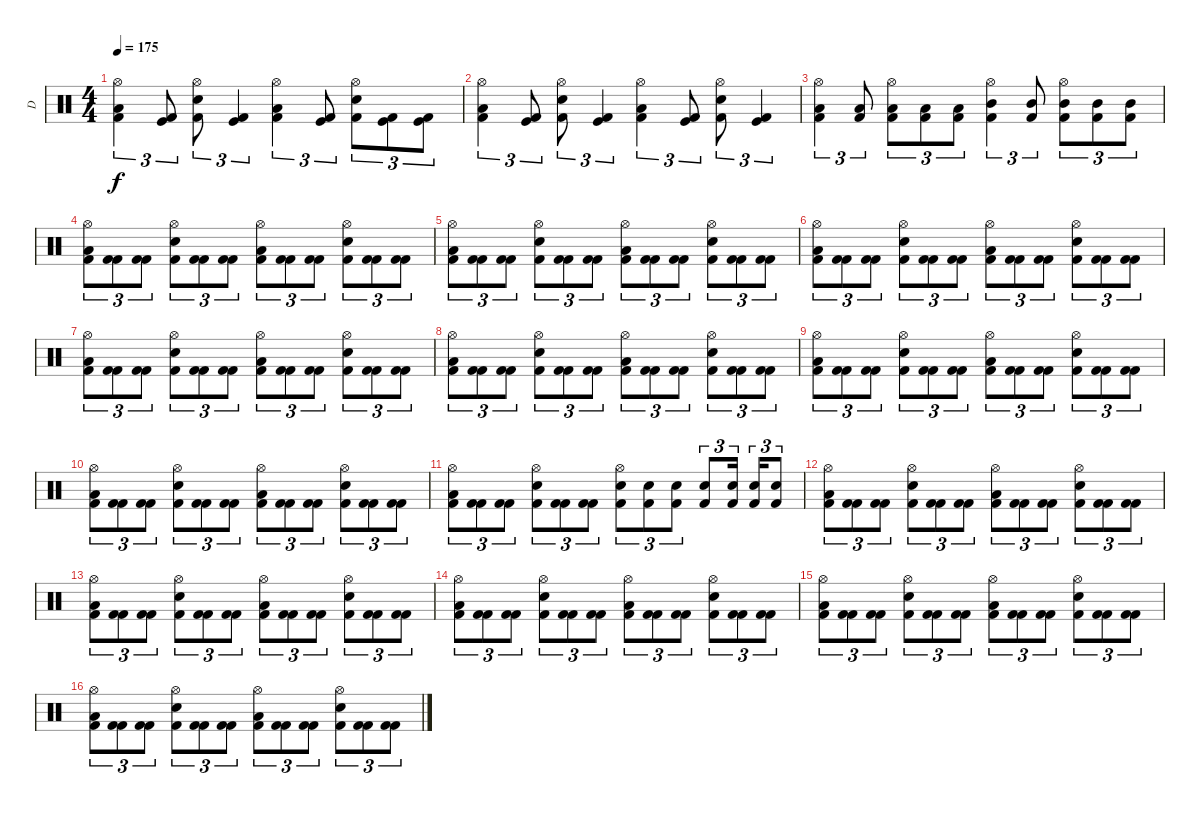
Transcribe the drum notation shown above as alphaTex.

\track ("D" "D") {instrument percussion}
\staff {score}
\articulation defaults
\ts (4 4)
\tempo 175
\clef neutral
\ks c
("Hi-Hat (open)" "Low Floor Tom (hit)" "Kick (hit) 2").4{tu (3 2) dy f} ("Kick (hit)" "Kick (hit) 2").8{tu (3 2)} ("Hi-Hat (open)" "Electric Snare (hit)" "Kick (hit) 2").8{tu (3 2)} ("Kick (hit)" "Kick (hit) 2").4{tu (3 2)} ("Hi-Hat (open)" "Low Floor Tom (hit)" "Kick (hit) 2").4{tu (3 2)} ("Kick (hit)" "Kick (hit) 2").8{tu (3 2)} ("Hi-Hat (open)" "Snare (hit) 2" "Kick (hit) 2").8{tu (3 2)} ("Kick (hit)" "Kick (hit) 2").8{tu (3 2)} ("Kick (hit)" "Kick (hit) 2").8{tu (3 2)} |
("Hi-Hat (open)" "Low Floor Tom (hit)" "Kick (hit) 2").4{tu (3 2)} ("Kick (hit)" "Kick (hit) 2").8{tu (3 2)} ("Hi-Hat (open)" "Electric Snare (hit)" "Kick (hit) 2").8{tu (3 2)} ("Kick (hit)" "Kick (hit) 2").4{tu (3 2)} ("Hi-Hat (open)" "Low Floor Tom (hit)" "Kick (hit) 2").4{tu (3 2)} ("Kick (hit)" "Kick (hit) 2").8{tu (3 2)} ("Hi-Hat (open)" "Electric Snare (hit)" "Kick (hit) 2").8{tu (3 2)} ("Kick (hit)" "Kick (hit) 2").4{tu (3 2)} |
("Hi-Hat (open)" "Low Tom (hit)" "Kick (hit) 2").4{tu (3 2)} ("Low Tom (hit)" "Kick (hit) 2").8{tu (3 2)} ("Hi-Hat (open)" "Low Tom (hit)" "Kick (hit) 2").8{tu (3 2)} ("Low Tom (hit)" "Kick (hit) 2").8{tu (3 2)} ("Low Tom (hit)" "Kick (hit) 2").8{tu (3 2)} ("Hi-Hat (open)" "Mid Tom (hit)" "Kick (hit) 2").4{tu (3 2)} ("Mid Tom (hit)" "Kick (hit) 2").8{tu (3 2)} ("Hi-Hat (open)" "Mid Tom (hit)" "Kick (hit) 2").8{tu (3 2)} ("Mid Tom (hit)" "Kick (hit) 2").8{tu (3 2)} ("Mid Tom (hit)" "Kick (hit) 2").8{tu (3 2)} |
("Hi-Hat (open)" "Low Floor Tom (hit)" "Kick (hit) 2").8{tu (3 2)} ("Kick (hit) 2" "Kick (hit) 2").8{tu (3 2)} ("Kick (hit) 2" "Kick (hit) 2").8{tu (3 2)} ("Hi-Hat (open)" "Electric Snare (hit)" "Kick (hit) 2").8{tu (3 2)} ("Kick (hit) 2" "Kick (hit) 2").8{tu (3 2)} ("Kick (hit) 2" "Kick (hit) 2").8{tu (3 2)} ("Hi-Hat (open)" "Low Floor Tom (hit)" "Kick (hit) 2").8{tu (3 2)} ("Kick (hit) 2" "Kick (hit) 2").8{tu (3 2)} ("Kick (hit) 2" "Kick (hit) 2").8{tu (3 2)} ("Hi-Hat (open)" "Snare (hit) 2" "Kick (hit) 2").8{tu (3 2)} ("Kick (hit) 2" "Kick (hit) 2").8{tu (3 2)} ("Kick (hit) 2" "Kick (hit) 2").8{tu (3 2)} |
("Hi-Hat (open)" "Low Floor Tom (hit)" "Kick (hit) 2").8{tu (3 2)} ("Kick (hit) 2" "Kick (hit) 2").8{tu (3 2)} ("Kick (hit) 2" "Kick (hit) 2").8{tu (3 2)} ("Hi-Hat (open)" "Electric Snare (hit)" "Kick (hit) 2").8{tu (3 2)} ("Kick (hit) 2" "Kick (hit) 2").8{tu (3 2)} ("Kick (hit) 2" "Kick (hit) 2").8{tu (3 2)} ("Hi-Hat (open)" "Low Floor Tom (hit)" "Kick (hit) 2").8{tu (3 2)} ("Kick (hit) 2" "Kick (hit) 2").8{tu (3 2)} ("Kick (hit) 2" "Kick (hit) 2").8{tu (3 2)} ("Hi-Hat (open)" "Snare (hit) 2" "Kick (hit) 2").8{tu (3 2)} ("Kick (hit) 2" "Kick (hit) 2").8{tu (3 2)} ("Kick (hit) 2" "Kick (hit) 2").8{tu (3 2)} |
("Hi-Hat (open)" "Low Floor Tom (hit)" "Kick (hit) 2").8{tu (3 2)} ("Kick (hit) 2" "Kick (hit) 2").8{tu (3 2)} ("Kick (hit) 2" "Kick (hit) 2").8{tu (3 2)} ("Hi-Hat (open)" "Electric Snare (hit)" "Kick (hit) 2").8{tu (3 2)} ("Kick (hit) 2" "Kick (hit) 2").8{tu (3 2)} ("Kick (hit) 2" "Kick (hit) 2").8{tu (3 2)} ("Hi-Hat (open)" "Low Floor Tom (hit)" "Kick (hit) 2").8{tu (3 2)} ("Kick (hit) 2" "Kick (hit) 2").8{tu (3 2)} ("Kick (hit) 2" "Kick (hit) 2").8{tu (3 2)} ("Hi-Hat (open)" "Snare (hit) 2" "Kick (hit) 2").8{tu (3 2)} ("Kick (hit) 2" "Kick (hit) 2").8{tu (3 2)} ("Kick (hit) 2" "Kick (hit) 2").8{tu (3 2)} |
("Hi-Hat (open)" "Low Floor Tom (hit)" "Kick (hit) 2").8{tu (3 2)} ("Kick (hit) 2" "Kick (hit) 2").8{tu (3 2)} ("Kick (hit) 2" "Kick (hit) 2").8{tu (3 2)} ("Hi-Hat (open)" "Electric Snare (hit)" "Kick (hit) 2").8{tu (3 2)} ("Kick (hit) 2" "Kick (hit) 2").8{tu (3 2)} ("Kick (hit) 2" "Kick (hit) 2").8{tu (3 2)} ("Hi-Hat (open)" "Low Floor Tom (hit)" "Kick (hit) 2").8{tu (3 2)} ("Kick (hit) 2" "Kick (hit) 2").8{tu (3 2)} ("Kick (hit) 2" "Kick (hit) 2").8{tu (3 2)} ("Hi-Hat (open)" "Snare (hit) 2" "Kick (hit) 2").8{tu (3 2)} ("Kick (hit) 2" "Kick (hit) 2").8{tu (3 2)} ("Kick (hit) 2" "Kick (hit) 2").8{tu (3 2)} |
("Hi-Hat (open)" "Low Floor Tom (hit)" "Kick (hit) 2").8{tu (3 2)} ("Kick (hit) 2" "Kick (hit) 2").8{tu (3 2)} ("Kick (hit) 2" "Kick (hit) 2").8{tu (3 2)} ("Hi-Hat (open)" "Electric Snare (hit)" "Kick (hit) 2").8{tu (3 2)} ("Kick (hit) 2" "Kick (hit) 2").8{tu (3 2)} ("Kick (hit) 2" "Kick (hit) 2").8{tu (3 2)} ("Hi-Hat (open)" "Low Floor Tom (hit)" "Kick (hit) 2").8{tu (3 2)} ("Kick (hit) 2" "Kick (hit) 2").8{tu (3 2)} ("Kick (hit) 2" "Kick (hit) 2").8{tu (3 2)} ("Hi-Hat (open)" "Snare (hit) 2" "Kick (hit) 2").8{tu (3 2)} ("Kick (hit) 2" "Kick (hit) 2").8{tu (3 2)} ("Kick (hit) 2" "Kick (hit) 2").8{tu (3 2)} |
("Hi-Hat (open)" "Low Floor Tom (hit)" "Kick (hit) 2").8{tu (3 2)} ("Kick (hit) 2" "Kick (hit) 2").8{tu (3 2)} ("Kick (hit) 2" "Kick (hit) 2").8{tu (3 2)} ("Hi-Hat (open)" "Electric Snare (hit)" "Kick (hit) 2").8{tu (3 2)} ("Kick (hit) 2" "Kick (hit) 2").8{tu (3 2)} ("Kick (hit) 2" "Kick (hit) 2").8{tu (3 2)} ("Hi-Hat (open)" "Low Floor Tom (hit)" "Kick (hit) 2").8{tu (3 2)} ("Kick (hit) 2" "Kick (hit) 2").8{tu (3 2)} ("Kick (hit) 2" "Kick (hit) 2").8{tu (3 2)} ("Hi-Hat (open)" "Snare (hit) 2" "Kick (hit) 2").8{tu (3 2)} ("Kick (hit) 2" "Kick (hit) 2").8{tu (3 2)} ("Kick (hit) 2" "Kick (hit) 2").8{tu (3 2)} |
("Hi-Hat (open)" "Low Floor Tom (hit)" "Kick (hit) 2").8{tu (3 2)} ("Kick (hit) 2" "Kick (hit) 2").8{tu (3 2)} ("Kick (hit) 2" "Kick (hit) 2").8{tu (3 2)} ("Hi-Hat (open)" "Electric Snare (hit)" "Kick (hit) 2").8{tu (3 2)} ("Kick (hit) 2" "Kick (hit) 2").8{tu (3 2)} ("Kick (hit) 2" "Kick (hit) 2").8{tu (3 2)} ("Hi-Hat (open)" "Low Floor Tom (hit)" "Kick (hit) 2").8{tu (3 2)} ("Kick (hit) 2" "Kick (hit) 2").8{tu (3 2)} ("Kick (hit) 2" "Kick (hit) 2").8{tu (3 2)} ("Hi-Hat (open)" "Snare (hit) 2" "Kick (hit) 2").8{tu (3 2)} ("Kick (hit) 2" "Kick (hit) 2").8{tu (3 2)} ("Kick (hit) 2" "Kick (hit) 2").8{tu (3 2)} |
("Hi-Hat (open)" "Low Floor Tom (hit)" "Kick (hit) 2").8{tu (3 2)} ("Kick (hit) 2" "Kick (hit) 2").8{tu (3 2)} ("Kick (hit) 2" "Kick (hit) 2").8{tu (3 2)} ("Hi-Hat (open)" "Electric Snare (hit)" "Kick (hit) 2").8{tu (3 2)} ("Kick (hit) 2" "Kick (hit) 2").8{tu (3 2)} ("Kick (hit) 2" "Kick (hit) 2").8{tu (3 2)} ("Hi-Hat (open)" "Snare (hit) 2" "Kick (hit) 2").8{tu (3 2)} ("Snare (hit) 2" "Kick (hit) 2").8{tu (3 2)} ("Snare (hit) 2" "Kick (hit) 2").8{tu (3 2)} ("Snare (hit) 2" "Kick (hit) 2").8{tu (3 2)} ("Snare (hit) 2" "Kick (hit) 2").16{tu (3 2)} ("Snare (hit) 2" "Kick (hit) 2").16{tu (3 2)} ("Snare (hit) 2" "Kick (hit) 2").8{tu (3 2)} |
("Hi-Hat (open)" "Low Floor Tom (hit)" "Kick (hit) 2").8{tu (3 2)} ("Kick (hit) 2" "Kick (hit) 2").8{tu (3 2)} ("Kick (hit) 2" "Kick (hit) 2").8{tu (3 2)} ("Hi-Hat (open)" "Electric Snare (hit)" "Kick (hit) 2").8{tu (3 2)} ("Kick (hit) 2" "Kick (hit) 2").8{tu (3 2)} ("Kick (hit) 2" "Kick (hit) 2").8{tu (3 2)} ("Hi-Hat (open)" "Low Floor Tom (hit)" "Kick (hit) 2").8{tu (3 2)} ("Kick (hit) 2" "Kick (hit) 2").8{tu (3 2)} ("Kick (hit) 2" "Kick (hit) 2").8{tu (3 2)} ("Hi-Hat (open)" "Snare (hit) 2" "Kick (hit) 2").8{tu (3 2)} ("Kick (hit) 2" "Kick (hit) 2").8{tu (3 2)} ("Kick (hit) 2" "Kick (hit) 2").8{tu (3 2)} |
("Hi-Hat (open)" "Low Floor Tom (hit)" "Kick (hit) 2").8{tu (3 2)} ("Kick (hit) 2" "Kick (hit) 2").8{tu (3 2)} ("Kick (hit) 2" "Kick (hit) 2").8{tu (3 2)} ("Hi-Hat (open)" "Electric Snare (hit)" "Kick (hit) 2").8{tu (3 2)} ("Kick (hit) 2" "Kick (hit) 2").8{tu (3 2)} ("Kick (hit) 2" "Kick (hit) 2").8{tu (3 2)} ("Hi-Hat (open)" "Low Floor Tom (hit)" "Kick (hit) 2").8{tu (3 2)} ("Kick (hit) 2" "Kick (hit) 2").8{tu (3 2)} ("Kick (hit) 2" "Kick (hit) 2").8{tu (3 2)} ("Hi-Hat (open)" "Snare (hit) 2" "Kick (hit) 2").8{tu (3 2)} ("Kick (hit) 2" "Kick (hit) 2").8{tu (3 2)} ("Kick (hit) 2" "Kick (hit) 2").8{tu (3 2)} |
("Hi-Hat (open)" "Low Floor Tom (hit)" "Kick (hit) 2").8{tu (3 2)} ("Kick (hit) 2" "Kick (hit) 2").8{tu (3 2)} ("Kick (hit) 2" "Kick (hit) 2").8{tu (3 2)} ("Hi-Hat (open)" "Electric Snare (hit)" "Kick (hit) 2").8{tu (3 2)} ("Kick (hit) 2" "Kick (hit) 2").8{tu (3 2)} ("Kick (hit) 2" "Kick (hit) 2").8{tu (3 2)} ("Hi-Hat (open)" "Low Floor Tom (hit)" "Kick (hit) 2").8{tu (3 2)} ("Kick (hit) 2" "Kick (hit) 2").8{tu (3 2)} ("Kick (hit) 2" "Kick (hit) 2").8{tu (3 2)} ("Hi-Hat (open)" "Snare (hit) 2" "Kick (hit) 2").8{tu (3 2)} ("Kick (hit) 2" "Kick (hit) 2").8{tu (3 2)} ("Kick (hit) 2" "Kick (hit) 2").8{tu (3 2)} |
("Hi-Hat (open)" "Low Floor Tom (hit)" "Kick (hit) 2").8{tu (3 2)} ("Kick (hit) 2" "Kick (hit) 2").8{tu (3 2)} ("Kick (hit) 2" "Kick (hit) 2").8{tu (3 2)} ("Hi-Hat (open)" "Electric Snare (hit)" "Kick (hit) 2").8{tu (3 2)} ("Kick (hit) 2" "Kick (hit) 2").8{tu (3 2)} ("Kick (hit) 2" "Kick (hit) 2").8{tu (3 2)} ("Hi-Hat (open)" "Low Floor Tom (hit)" "Kick (hit) 2").8{tu (3 2)} ("Kick (hit) 2" "Kick (hit) 2").8{tu (3 2)} ("Kick (hit) 2" "Kick (hit) 2").8{tu (3 2)} ("Hi-Hat (open)" "Snare (hit) 2" "Kick (hit) 2").8{tu (3 2)} ("Kick (hit) 2" "Kick (hit) 2").8{tu (3 2)} ("Kick (hit) 2" "Kick (hit) 2").8{tu (3 2)} |
("Hi-Hat (open)" "Low Floor Tom (hit)" "Kick (hit) 2").8{tu (3 2)} ("Kick (hit) 2" "Kick (hit) 2").8{tu (3 2)} ("Kick (hit) 2" "Kick (hit) 2").8{tu (3 2)} ("Hi-Hat (open)" "Electric Snare (hit)" "Kick (hit) 2").8{tu (3 2)} ("Kick (hit) 2" "Kick (hit) 2").8{tu (3 2)} ("Kick (hit) 2" "Kick (hit) 2").8{tu (3 2)} ("Hi-Hat (open)" "Low Floor Tom (hit)" "Kick (hit) 2").8{tu (3 2)} ("Kick (hit) 2" "Kick (hit) 2").8{tu (3 2)} ("Kick (hit) 2" "Kick (hit) 2").8{tu (3 2)} ("Hi-Hat (open)" "Snare (hit) 2" "Kick (hit) 2").8{tu (3 2)} ("Kick (hit) 2" "Kick (hit) 2").8{tu (3 2)} ("Kick (hit) 2" "Kick (hit) 2").8{tu (3 2)}
